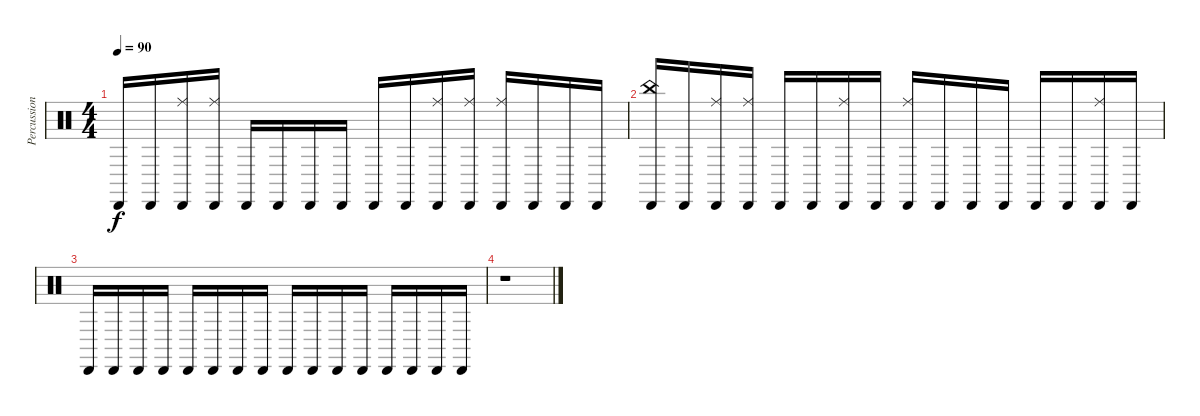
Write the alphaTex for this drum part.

\track ("Percussions by Marc Lavoo" "Percussion") {instrument percussion}
\staff {score}
\articulation defaults
\ts (4 4)
\tempo 90
\clef neutral
\ks c "Cabasa (hit)".16{dy f} "Cabasa (hit)".16
("Cabasa (hit)" "Ride (middle)").16 ("Cabasa (hit)" "Ride (middle)").16 "Cabasa (hit)".16 "Cabasa (hit)".16 "Cabasa (hit)".16 "Cabasa (hit)".16 "Cabasa (hit)".16 "Cabasa (hit)".16 ("Cabasa (hit)" "Ride (middle)").16 ("Cabasa (hit)" "Ride (middle)").16 ("Cabasa (hit)" "Ride (middle)").16 "Cabasa (hit)".16 "Cabasa (hit)".16 "Cabasa (hit)".16 |
("Cabasa (hit)" "China (hit)").16 "Cabasa (hit)".16 ("Cabasa (hit)" "Ride (middle)").16 ("Cabasa (hit)" "Ride (middle)").16 "Cabasa (hit)".16 "Cabasa (hit)".16 ("Cabasa (hit)" "Ride (middle)").16 "Cabasa (hit)".16 ("Cabasa (hit)" "Ride (middle)").16 "Cabasa (hit)".16 "Cabasa (hit)".16 "Cabasa (hit)".16 "Cabasa (hit)".16 "Cabasa (hit)".16 ("Cabasa (hit)" "Ride (middle)").16 "Cabasa (hit)".16 |
"Cabasa (hit)".16 "Cabasa (hit)".16 "Cabasa (hit)".16 "Cabasa (hit)".16 "Cabasa (hit)".16 "Cabasa (hit)".16 "Cabasa (hit)".16 "Cabasa (hit)".16 "Cabasa (hit)".16 "Cabasa (hit)".16 "Cabasa (hit)".16 "Cabasa (hit)".16 "Cabasa (hit)".16 "Cabasa (hit)".16 "Cabasa (hit)".16 "Cabasa (hit)".16 |
r.1
